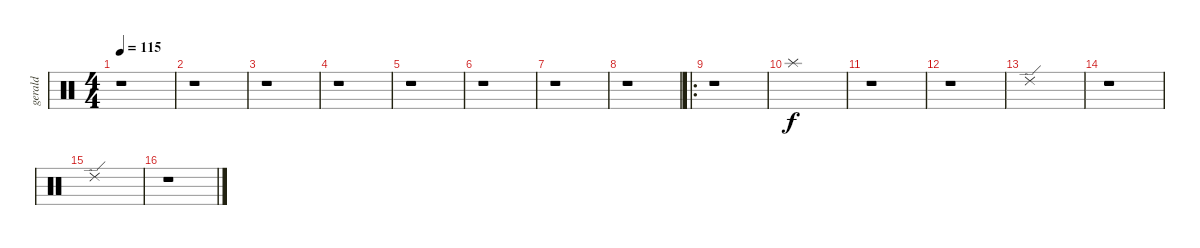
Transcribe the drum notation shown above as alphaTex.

\track ("gerald" "gerald") {instrument percussion}
\staff {score}
\articulation defaults
\ts (4 4)
\tempo 115
\clef neutral
\ks c
r.1{dy f} |
r.1 |
r.1 |
r.1 |
r.1 |
r.1 |
r.1 |
r.1 |
\ro
r.1 |
"Splash (hit)".1 |
r.1 |
r.1 |
"Ride (edge) 2".1 |
r.1 |
"Ride (edge) 2".1 |
r.1
